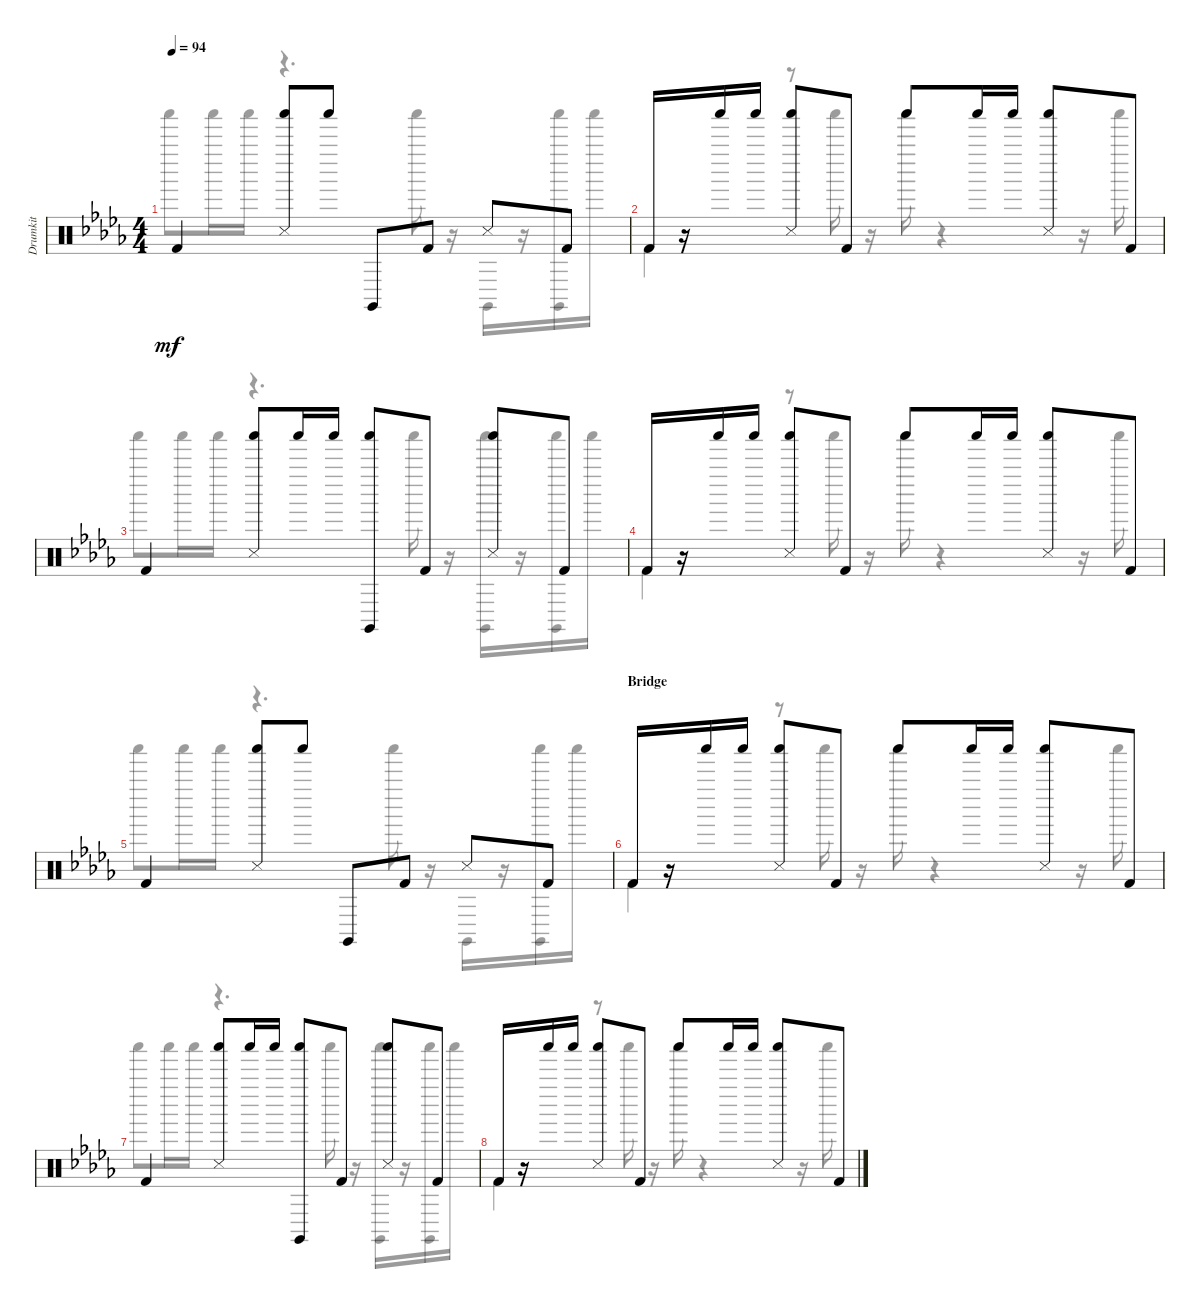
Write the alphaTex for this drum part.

\track ("Drumkit" "Drumkit") {instrument percussion}
\staff {score}
\articulation defaults
\voice
\ts (4 4)
\tempo 94
\clef neutral
\ks bbminor "Kick (hit) 2".4{dy mf}
("Shaker (hit)" "Snare (side stick) 3").8 "Shaker (hit)".8 "Claves (hit)".8 "Kick (hit) 2".8 "Snare (side stick) 3".8 "Kick (hit) 2".8 |
"Kick (hit) 2".16 r.16 "Shaker (hit)".16 "Shaker (hit)".16 ("Snare (side stick) 3" "Shaker (hit)").8 "Kick (hit) 2".8 "Shaker (hit)".8 "Shaker (hit)".16 "Shaker (hit)".16 ("Snare (side stick) 3" "Shaker (hit)").8 "Kick (hit) 2".8 |
"Kick (hit) 2".4 ("Shaker (hit)" "Snare (side stick) 3").8 "Shaker (hit)".16 "Shaker (hit)".16 ("Shaker (hit)" "Claves (hit)").8 "Kick (hit) 2".8 ("Shaker (hit)" "Snare (side stick) 3").8 "Kick (hit) 2".8 |
"Kick (hit) 2".16 r.16 "Shaker (hit)".16 "Shaker (hit)".16 ("Snare (side stick) 3" "Shaker (hit)").8 "Kick (hit) 2".8 "Shaker (hit)".8 "Shaker (hit)".16 "Shaker (hit)".16 ("Snare (side stick) 3" "Shaker (hit)").8 "Kick (hit) 2".8 |
"Kick (hit) 2".4 ("Snare (side stick) 3" "Shaker (hit)").8 "Shaker (hit)".8 "Claves (hit)".8 "Kick (hit) 2".8 "Snare (side stick) 3".8 "Kick (hit) 2".8 |
\section ("" "Bridge")
"Kick (hit) 2".16 r.16 "Shaker (hit)".16 "Shaker (hit)".16 ("Snare (side stick) 3" "Shaker (hit)").8 "Kick (hit) 2".8 "Shaker (hit)".8 "Shaker (hit)".16 "Shaker (hit)".16 ("Snare (side stick) 3" "Shaker (hit)").8 "Kick (hit) 2".8 |
"Kick (hit) 2".4 ("Snare (side stick) 3" "Shaker (hit)").8 "Shaker (hit)".16 "Shaker (hit)".16 ("Shaker (hit)" "Claves (hit)").8 "Kick (hit) 2".8 ("Snare (side stick) 3" "Shaker (hit)").8 "Kick (hit) 2".8 |
"Kick (hit) 2".16 r.16 "Shaker (hit)".16 "Shaker (hit)".16 ("Snare (side stick) 3" "Shaker (hit)").8 "Kick (hit) 2".8 "Shaker (hit)".8 "Shaker (hit)".16 "Shaker (hit)".16 ("Snare (side stick) 3" "Shaker (hit)").8 "Kick (hit) 2".8
\voice
\clef neutral
\ottava regular
\simile none
\ks bbminor "Shaker (hit)".8{dy mf} "Shaker (hit)".16 "Shaker (hit)".16
r.4{d} "Shaker (hit)".16 r.16 "Claves (hit)".16 r.16 ("Shaker (hit)" "Claves (hit)").16 "Shaker (hit)".16 |
"Kick (hit) 2".4 r.8 "Shaker (hit)".16 r.16 "Shaker (hit)".16 r.4 r.16 "Shaker (hit)".16 |
"Shaker (hit)".8 "Shaker (hit)".16 "Shaker (hit)".16 r.4{d} "Shaker (hit)".16 r.16 ("Shaker (hit)" "Claves (hit)").16 r.16 ("Shaker (hit)" "Claves (hit)").16 "Shaker (hit)".16 |
"Kick (hit) 2".4 r.8 "Shaker (hit)".16 r.16 "Shaker (hit)".16 r.4 r.16 "Shaker (hit)".16 |
"Shaker (hit)".8 "Shaker (hit)".16 "Shaker (hit)".16 r.4{d} "Shaker (hit)".16 r.16 "Claves (hit)".16 r.16 ("Shaker (hit)" "Claves (hit)").16 "Shaker (hit)".16 |
"Kick (hit) 2".4 r.8 "Shaker (hit)".16 r.16 "Shaker (hit)".16 r.4 r.16 "Shaker (hit)".16 |
"Shaker (hit)".8 "Shaker (hit)".16 "Shaker (hit)".16 r.4{d} "Shaker (hit)".16 r.16 ("Shaker (hit)" "Claves (hit)").16 r.16 ("Claves (hit)" "Shaker (hit)").16 "Shaker (hit)".16 |
"Kick (hit) 2".4 r.8 "Shaker (hit)".16 r.16 "Shaker (hit)".16 r.4 r.16 "Shaker (hit)".16
